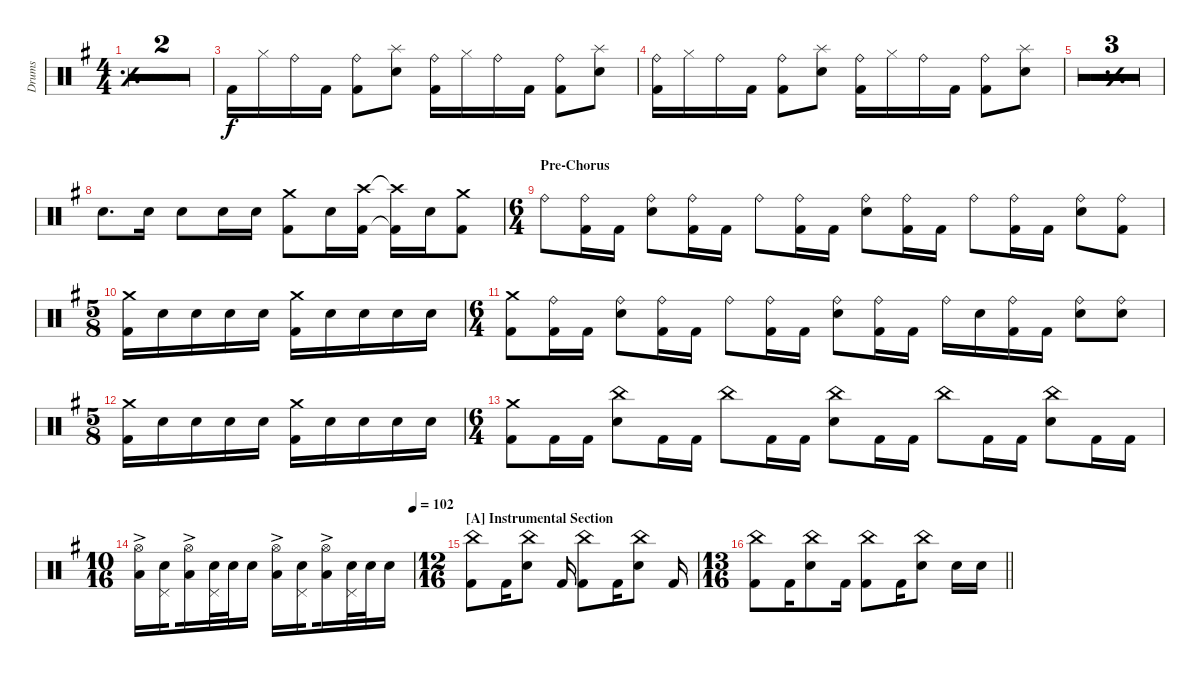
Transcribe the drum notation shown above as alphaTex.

\defaultSystemsLayout 4
\bracketExtendMode groupsimilarinstruments
\otherSystemsTrackNameOrientation horizontal
\track ("Drumkit" "Drums") {multiBarRest instrument percussion}
\staff {score}
\articulation defaults
\ts (4 4)
\tempo 106
\clef neutral
\simile simple
\ks g
|
|
\simile none "Kick (hit) 2"{acc forcenatural}.16 "Hi-Hat (closed)"{acc forcenatural}.16 "Ride (bell)"{acc forcenatural}.16 "Kick (hit) 2"{acc forcenatural}.16
("Kick (hit) 2"{acc forcenatural} "Ride (bell)"{acc forcenatural}).8 ("Snare (hit) 2"{acc forcenatural} "Splash (hit)"{acc forcenatural}).8 ("Kick (hit) 2"{acc forcenatural} "Ride (bell)"{acc forcenatural}).16 "Hi-Hat (closed)"{acc forcenatural}.16 "Ride (bell)"{acc forcenatural}.16 "Kick (hit) 2"{acc forcenatural}.16 ("Kick (hit) 2"{acc forcenatural} "Ride (bell)"{acc forcenatural}).8 ("Snare (hit) 2"{acc forcenatural} "Splash (hit)"{acc forcenatural}).8 |
("Kick (hit) 2"{acc forcenatural} "Ride (bell)"{acc forcenatural}).16 "Hi-Hat (closed)"{acc forcenatural}.16 "Ride (bell)"{acc forcenatural}.16 "Kick (hit) 2"{acc forcenatural}.16 ("Kick (hit) 2"{acc forcenatural} "Ride (bell)"{acc forcenatural}).8 ("Snare (hit) 2"{acc forcenatural} "Splash (hit)"{acc forcenatural}).8 ("Kick (hit) 2"{acc forcenatural} "Ride (bell)"{acc forcenatural}).16 "Hi-Hat (closed)"{acc forcenatural}.16 "Ride (bell)"{acc forcenatural}.16 "Kick (hit) 2"{acc forcenatural}.16 ("Kick (hit) 2"{acc forcenatural} "Ride (bell)"{acc forcenatural}).8 ("Snare (hit) 2"{acc forcenatural} "Splash (hit)"{acc forcenatural}).8 |
\simile simple
|
|
|
\simile none "Snare (hit) 2"{acc forcenatural}.8{d} "Snare (hit) 2"{acc forcenatural}.16 "Snare (hit) 2"{acc forcenatural}.8 "Snare (hit) 2"{acc forcenatural}.16 "Snare (hit) 2"{acc forcenatural}.16
("Kick (hit) 2"{acc forcenatural} "Crash medium (hit)"{acc forcenatural}).8 "Snare (hit) 2"{acc forcenatural}.16 ("Kick (hit) 2"{acc forcenatural} "Crash high (hit)"{acc forcenatural}).16 ("Kick (hit) 2"{t acc forcenatural} "Crash high (hit)"{t acc forcenatural}).16 "Snare (hit) 2"{acc forcenatural}.16 ("Kick (hit) 2"{acc forcenatural} "Crash medium (hit)"{acc forcenatural}).8 |
\ts (6 4)
\beaming (8 2 2 2 2 2 2)
\section ("" "Pre-Chorus")
"Ride (bell)"{acc forcenatural}.8 ("Ride (bell)"{acc forcenatural} "Kick (hit) 2"{acc forcenatural}).16 "Kick (hit) 2"{acc forcenatural}.16 ("Ride (bell)"{acc forcenatural} "Snare (hit) 2"{acc forcenatural}).8 ("Ride (bell)"{acc forcenatural} "Kick (hit) 2"{acc forcenatural}).16 "Kick (hit) 2"{acc forcenatural}.16 "Ride (bell)"{acc forcenatural}.8 ("Ride (bell)"{acc forcenatural} "Kick (hit) 2"{acc forcenatural}).16 "Kick (hit) 2"{acc forcenatural}.16 ("Ride (bell)"{acc forcenatural} "Snare (hit) 2"{acc forcenatural}).8 ("Ride (bell)"{acc forcenatural} "Kick (hit) 2"{acc forcenatural}).16 "Kick (hit) 2"{acc forcenatural}.16 "Ride (bell)"{acc forcenatural}.8 ("Ride (bell)"{acc forcenatural} "Kick (hit) 2"{acc forcenatural}).16 "Kick (hit) 2"{acc forcenatural}.16 ("Ride (bell)"{acc forcenatural} "Snare (hit) 2"{acc forcenatural}).8 ("Ride (bell)"{acc forcenatural} "Kick (hit) 2"{acc forcenatural}).8 |
\ts (5 8)
\beaming (8 2 2 2 2 2 2)
("Crash medium (hit)"{acc forcenatural} "Kick (hit) 2"{acc forcenatural}).16 "Snare (hit) 2"{acc forcenatural}.16 "Snare (hit) 2"{acc forcenatural}.16 "Snare (hit) 2"{acc forcenatural}.16{beam merge} "Snare (hit) 2"{acc forcenatural}.16{beam split} ("Crash medium (hit)"{acc forcenatural} "Kick (hit) 2"{acc forcenatural}).16 "Snare (hit) 2"{acc forcenatural}.16 "Snare (hit) 2"{acc forcenatural}.16{beam merge} "Snare (hit) 2"{acc forcenatural}.16 "Snare (hit) 2"{acc forcenatural}.16 |
\ts (6 4)
\beaming (8 2 2 2 2 2 2)
("Crash medium (hit)"{acc forcenatural} "Kick (hit) 2"{acc forcenatural}).8 ("Ride (bell)"{acc forcenatural} "Kick (hit) 2"{acc forcenatural}).16 "Kick (hit) 2"{acc forcenatural}.16 ("Ride (bell)"{acc forcenatural} "Snare (hit) 2"{acc forcenatural}).8 ("Ride (bell)"{acc forcenatural} "Kick (hit) 2"{acc forcenatural}).16 "Kick (hit) 2"{acc forcenatural}.16 "Ride (bell)"{acc forcenatural}.8 ("Ride (bell)"{acc forcenatural} "Kick (hit) 2"{acc forcenatural}).16 "Kick (hit) 2"{acc forcenatural}.16 ("Ride (bell)"{acc forcenatural} "Snare (hit) 2"{acc forcenatural}).8 ("Ride (bell)"{acc forcenatural} "Kick (hit) 2"{acc forcenatural}).16 "Kick (hit) 2"{acc forcenatural}.16 "Ride (bell)"{acc forcenatural}.16 "Snare (hit) 2"{acc forcenatural}.16 ("Ride (bell)"{acc forcenatural} "Kick (hit) 2"{acc forcenatural}).16 "Kick (hit) 2"{acc forcenatural}.16 ("Ride (bell)"{acc forcenatural} "Snare (hit) 2"{acc forcenatural}).8 ("Ride (bell)"{acc forcenatural} "Snare (hit) 2"{acc forcenatural}).8 |
\ts (5 8)
\beaming (8 2 1 2)
("Crash medium (hit)"{acc forcenatural} "Kick (hit) 2"{acc forcenatural}).16 "Snare (hit) 2"{acc forcenatural}.16 "Snare (hit) 2"{acc forcenatural}.16 "Snare (hit) 2"{acc forcenatural}.16{beam merge} "Snare (hit) 2"{acc forcenatural}.16{beam split} ("Crash medium (hit)"{acc forcenatural} "Kick (hit) 2"{acc forcenatural}).16{beam merge} "Snare (hit) 2"{acc forcenatural}.16 "Snare (hit) 2"{acc forcenatural}.16 "Snare (hit) 2"{acc forcenatural}.16 "Snare (hit) 2"{acc forcenatural}.16 |
\ts (6 4)
\beaming (8 2 2 2 2 2 2)
("Crash medium (hit)"{acc forcenatural} "Kick (hit) 2"{acc forcenatural}).8 "Kick (hit) 2"{acc forcenatural}.16 "Kick (hit) 2"{acc forcenatural}.16 ("Snare (hit) 2"{acc forcenatural} "China (hit)"{acc forcenatural}).8 "Kick (hit) 2"{acc forcenatural}.16 "Kick (hit) 2"{acc forcenatural}.16 "China (hit)"{acc forcenatural}.8 "Kick (hit) 2"{acc forcenatural}.16 "Kick (hit) 2"{acc forcenatural}.16 ("Snare (hit) 2"{acc forcenatural} "China (hit)"{acc forcenatural}).8 "Kick (hit) 2"{acc forcenatural}.16 "Kick (hit) 2"{acc forcenatural}.16 "China (hit)"{acc forcenatural}.8 "Kick (hit) 2"{acc forcenatural}.16 "Kick (hit) 2"{acc forcenatural}.16 ("Snare (hit) 2"{acc forcenatural} "China (hit)"{acc forcenatural}).8 "Kick (hit) 2"{acc forcenatural}.16 "Kick (hit) 2"{acc forcenatural}.16 |
\ts (10 16)
\beaming (8 2 1 2)
\tempo (102 1)
("Low Tom (hit)"{ac acc forcenatural} "Hi-Hat (open)"{acc forcenatural}).16{beam merge} ("Pedal Hi-Hat (hit)"{acc forcenatural} "Snare (hit) 2"{acc forcenatural}).16{beam splitsecondary} ("Low Tom (hit)"{ac acc forcenatural} "Hi-Hat (open)"{acc forcenatural}).16{beam merge} ("Pedal Hi-Hat (hit)"{acc forcenatural} "Snare (hit) 2"{acc forcenatural}).32{beam merge} "Snare (hit) 2"{acc forcenatural}.32{beam merge} "Snare (hit) 2"{acc forcenatural}.16{beam split} ("Low Tom (hit)"{ac acc forcenatural} "Hi-Hat (open)"{acc forcenatural}).16{beam merge} ("Pedal Hi-Hat (hit)"{acc forcenatural} "Snare (hit) 2"{acc forcenatural}).16{beam splitsecondary} ("Low Tom (hit)"{ac acc forcenatural} "Hi-Hat (open)"{acc forcenatural}).16{beam merge} ("Pedal Hi-Hat (hit)"{acc forcenatural} "Snare (hit) 2"{acc forcenatural}).32{beam merge} "Snare (hit) 2"{acc forcenatural}.32{beam merge} "Snare (hit) 2"{acc forcenatural}.16 |
\ts (12 16)
\section ("A" "Instrumental Section")
("Kick (hit) 2"{acc forcenatural} "China (hit)"{acc forcenatural}).8 "Kick (hit) 2"{acc forcenatural}.16 ("China (hit)"{acc forcenatural} "Snare (hit) 2"{acc forcenatural}).8 "Kick (hit) 2"{acc forcenatural}.16 ("Kick (hit) 2"{acc forcenatural} "China (hit)"{acc forcenatural}).8 "Kick (hit) 2"{acc forcenatural}.16 ("China (hit)"{acc forcenatural} "Snare (hit) 2"{acc forcenatural}).8 "Kick (hit) 2"{acc forcenatural}.16 |
\ts (13 16)
\beaming (16 6 5 2)
\barLineRight lightlight
("Kick (hit) 2"{acc forcenatural} "China (hit)"{acc forcenatural}).8 "Kick (hit) 2"{acc forcenatural}.16 ("China (hit)"{acc forcenatural} "Snare (hit) 2"{acc forcenatural}).8 "Kick (hit) 2"{acc forcenatural}.16 ("Kick (hit) 2"{acc forcenatural} "China (hit)"{acc forcenatural}).8 "Kick (hit) 2"{acc forcenatural}.16 ("China (hit)"{acc forcenatural} "Snare (hit) 2"{acc forcenatural}).8{beam split} "Snare (hit) 2"{acc forcenatural}.16 "Snare (hit) 2"{acc forcenatural}.16
